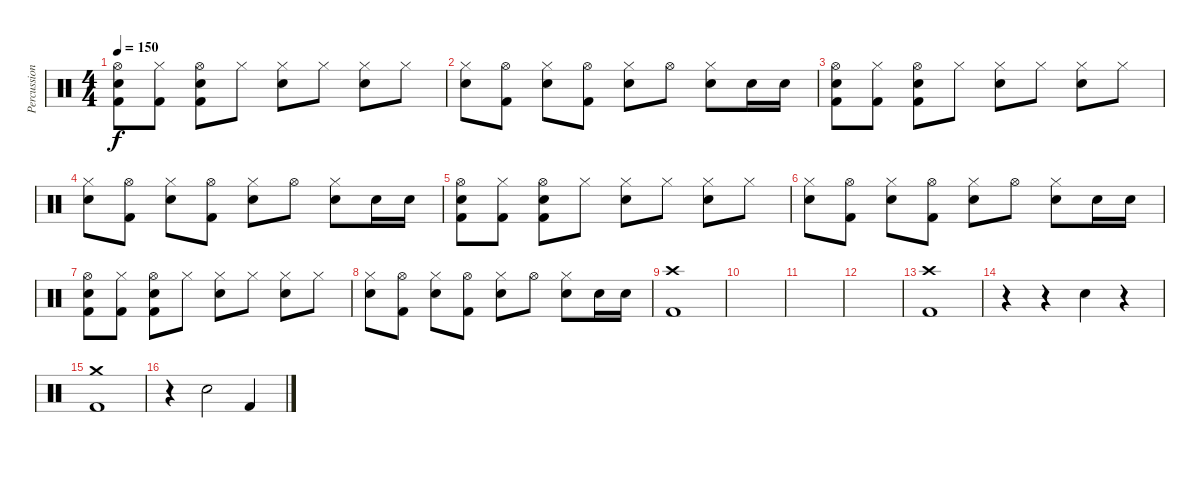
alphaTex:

\track ("Percussion" "Percussion") {instrument percussion}
\staff {score}
\articulation defaults
\ts (4 4)
\tempo 150
\clef neutral
\ks c
("Hi-Hat (open)" "Snare (hit) 2" "Kick (hit) 2").8{dy f} ("Hi-Hat (closed)" "Kick (hit) 2").8 ("Hi-Hat (open)" "Snare (hit) 2" "Kick (hit) 2").8 "Hi-Hat (closed)".8 ("Hi-Hat (closed)" "Snare (hit) 2").8 "Hi-Hat (closed)".8 ("Hi-Hat (closed)" "Snare (hit) 2").8 "Hi-Hat (closed)".8 |
("Hi-Hat (closed)" "Snare (hit) 2").8 ("Hi-Hat (open)" "Kick (hit) 2").8 ("Hi-Hat (closed)" "Snare (hit) 2").8 ("Hi-Hat (open)" "Kick (hit) 2").8 ("Hi-Hat (closed)" "Snare (hit) 2").8 "Hi-Hat (open)".8 ("Hi-Hat (closed)" "Snare (hit) 2").8 "Snare (hit) 2".16 "Snare (hit) 2".16 |
("Hi-Hat (open)" "Snare (hit) 2" "Kick (hit) 2").8 ("Hi-Hat (closed)" "Kick (hit) 2").8 ("Hi-Hat (open)" "Snare (hit) 2" "Kick (hit) 2").8 "Hi-Hat (closed)".8 ("Hi-Hat (closed)" "Snare (hit) 2").8 "Hi-Hat (closed)".8 ("Hi-Hat (closed)" "Snare (hit) 2").8 "Hi-Hat (closed)".8 |
("Hi-Hat (closed)" "Snare (hit) 2").8 ("Hi-Hat (open)" "Kick (hit) 2").8 ("Hi-Hat (closed)" "Snare (hit) 2").8 ("Hi-Hat (open)" "Kick (hit) 2").8 ("Hi-Hat (closed)" "Snare (hit) 2").8 "Hi-Hat (open)".8 ("Hi-Hat (closed)" "Snare (hit) 2").8 "Snare (hit) 2".16 "Snare (hit) 2".16 |
("Hi-Hat (open)" "Snare (hit) 2" "Kick (hit) 2").8 ("Hi-Hat (closed)" "Kick (hit) 2").8 ("Hi-Hat (open)" "Snare (hit) 2" "Kick (hit) 2").8 "Hi-Hat (closed)".8 ("Hi-Hat (closed)" "Snare (hit) 2").8 "Hi-Hat (closed)".8 ("Hi-Hat (closed)" "Snare (hit) 2").8 "Hi-Hat (closed)".8 |
("Hi-Hat (closed)" "Snare (hit) 2").8 ("Hi-Hat (open)" "Kick (hit) 2").8 ("Hi-Hat (closed)" "Snare (hit) 2").8 ("Hi-Hat (open)" "Kick (hit) 2").8 ("Hi-Hat (closed)" "Snare (hit) 2").8 "Hi-Hat (open)".8 ("Hi-Hat (closed)" "Snare (hit) 2").8 "Snare (hit) 2".16 "Snare (hit) 2".16 |
("Hi-Hat (open)" "Snare (hit) 2" "Kick (hit) 2").8 ("Hi-Hat (closed)" "Kick (hit) 2").8 ("Hi-Hat (open)" "Snare (hit) 2" "Kick (hit) 2").8 "Hi-Hat (closed)".8 ("Hi-Hat (closed)" "Snare (hit) 2").8 "Hi-Hat (closed)".8 ("Hi-Hat (closed)" "Snare (hit) 2").8 "Hi-Hat (closed)".8 |
("Hi-Hat (closed)" "Snare (hit) 2").8 ("Hi-Hat (open)" "Kick (hit) 2").8 ("Hi-Hat (closed)" "Snare (hit) 2").8 ("Hi-Hat (open)" "Kick (hit) 2").8 ("Hi-Hat (closed)" "Snare (hit) 2").8 "Hi-Hat (open)".8 ("Hi-Hat (closed)" "Snare (hit) 2").8 "Snare (hit) 2".16 "Snare (hit) 2".16 |
("Crash high (hit)" "Kick (hit) 2").1 |
|
|
|
("Crash high (hit)" "Kick (hit) 2").1 |
r.4 r.4 "Snare (hit) 2".4 r.4 |
("Crash medium (hit)" "Kick (hit) 2").1 |
r.4 "Snare (hit) 2".2 "Kick (hit) 2".4
